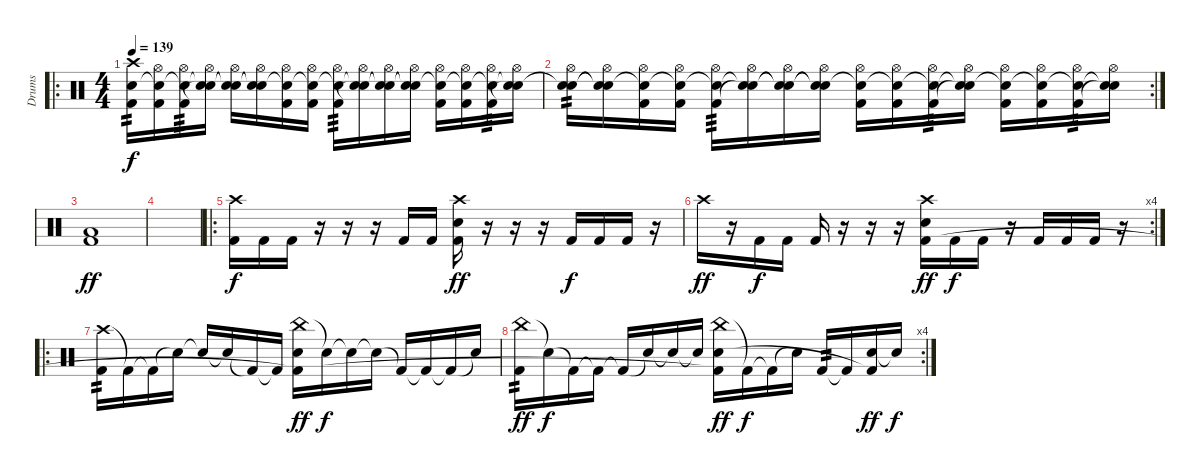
\track ("Drums" "Drums") {instrument percussion}
\staff {score}
\articulation defaults
\ro
\ts (4 4)
\tempo 139
\clef neutral
\ks c
("Crash high (hit)" "Electric Snare (hit)" "Kick (hit) 2").16{tp 2 dy f} ("Hi-Hat (open)" "Electric Snare (hit)"{t} "Kick (hit) 2").16 ("Hi-Hat (open)" "Electric Snare (hit)"{t} "Kick (hit) 2").16{tp 3} ("Hi-Hat (open)" "Electric Snare (hit)"{t} "Snare (hit)"{t}).16 ("Hi-Hat (open)" "Electric Snare (hit)"{t} "Snare (hit)"{t}).16 ("Hi-Hat (open)" "Electric Snare (hit)"{t} "Snare (hit)"{t}).16 ("Hi-Hat (open)" "Electric Snare (hit)"{t} "Kick (hit) 2").16 ("Hi-Hat (open)" "Electric Snare (hit)"{t} "Kick (hit) 2").16 ("Hi-Hat (open)" "Electric Snare (hit)"{t} "Kick (hit) 2").16{tp 3} ("Hi-Hat (open)" "Electric Snare (hit)"{t} "Snare (hit)"{t}).16 ("Hi-Hat (open)" "Electric Snare (hit)"{t} "Snare (hit)"{t}).16 ("Hi-Hat (open)" "Electric Snare (hit)"{t} "Snare (hit)"{t}).16 ("Hi-Hat (open)" "Electric Snare (hit)"{t} "Kick (hit) 2").16 ("Hi-Hat (open)" "Electric Snare (hit)"{t} "Kick (hit) 2").16 ("Hi-Hat (open)" "Electric Snare (hit)"{t} "Kick (hit) 2").16{tp 3} ("Hi-Hat (open)" "Electric Snare (hit)"{t} "Snare (hit)"{t}).16 |
\rc 2
("Hi-Hat (open)" "Electric Snare (hit)" "Snare (hit)"{t}).16{tp 2} ("Hi-Hat (open)" "Electric Snare (hit)"{t} "Snare (hit)"{t}).16 ("Hi-Hat (open)" "Electric Snare (hit)"{t} "Kick (hit) 2").16 ("Hi-Hat (open)" "Electric Snare (hit)"{t} "Kick (hit) 2").16 ("Hi-Hat (open)" "Electric Snare (hit)"{t} "Kick (hit) 2").16{tp 3} ("Hi-Hat (open)" "Electric Snare (hit)"{t} "Snare (hit)"{t}).16 ("Hi-Hat (open)" "Electric Snare (hit)"{t} "Snare (hit)"{t}).16 ("Hi-Hat (open)" "Electric Snare (hit)"{t} "Snare (hit)"{t}).16 ("Hi-Hat (open)" "Electric Snare (hit)"{t} "Kick (hit) 2").16 ("Hi-Hat (open)" "Electric Snare (hit)"{t} "Kick (hit) 2").16 ("Hi-Hat (open)" "Electric Snare (hit)"{t} "Kick (hit) 2").16{tp 3} ("Hi-Hat (open)" "Electric Snare (hit)"{t} "Snare (hit)"{t}).16 ("Hi-Hat (open)" "Electric Snare (hit)"{t} "Kick (hit) 2").16 ("Hi-Hat (open)" "Electric Snare (hit)"{t} "Kick (hit) 2").16 ("Hi-Hat (open)" "Electric Snare (hit)"{t} "Kick (hit) 2").16{tp 3} ("Hi-Hat (open)" "Electric Snare (hit)"{t} "Snare (hit)"{t}).16 |
("Low Floor Tom (hit)" "Kick (hit) 2").1{dy ff} |
|
\ro
("Crash high (hit)" "Kick (hit) 2").16{dy f} "Kick (hit) 2".16 "Kick (hit) 2".16 r.16 r.16 r.16 "Kick (hit) 2".16 "Kick (hit) 2".16 ("Crash high (hit)" "Electric Snare (hit)" "Kick (hit) 2").16{dy ff} r.16 r.16 r.16 "Kick (hit) 2".16{dy f} "Kick (hit) 2".16 "Kick (hit) 2".16 r.16 |
\rc 4 "Crash high (hit)".16{dy ff}
r.16 "Kick (hit) 2".16{dy f} "Kick (hit) 2".16 "Kick (hit) 2".16 r.16 r.16 r.16 ("Crash high (hit)" "Electric Snare (hit)" "Kick (hit) 2").16{dy ff} "Kick (hit) 2".16{dy f} "Kick (hit) 2".16 r.16 "Kick (hit) 2".16 "Kick (hit) 2".16 "Kick (hit) 2".16 r.16 |
\ro
("Crash high (hit)" "Kick (hit) 2").16{tp 2} "Kick (hit) 2"{t}.16 "Kick (hit) 2"{t}.16 "Snare (hit)"{t}.16 "Snare (hit)"{t}.16 "Snare (hit)"{t}.16 "Kick (hit) 2"{t}.16 "Kick (hit) 2"{t}.16 ("China (hit)" "Electric Snare (hit)" "Kick (hit) 2"{t}).16{dy ff} "Snare (hit)"{t}.16{dy f} "Snare (hit)"{t}.16 "Snare (hit)"{t}.16 "Kick (hit) 2"{t}.16 "Kick (hit) 2"{t}.16 "Kick (hit) 2"{t}.16 "Snare (hit)"{t}.16 |
\rc 4
("China (hit)" "Kick (hit) 2").16{tp 2 dy ff} "Snare (hit)"{t}.16{dy f} "Kick (hit) 2"{t}.16 "Kick (hit) 2"{t}.16 "Kick (hit) 2"{t}.16 "Snare (hit)"{t}.16 "Snare (hit)"{t}.16 "Snare (hit)"{t}.16 ("China (hit)" "Electric Snare (hit)" "Kick (hit) 2"{t}).16{dy ff} "Kick (hit) 2"{t}.16{dy f} "Kick (hit) 2"{t}.16 "Snare (hit)"{t}.16 "Kick (hit) 2".16{tp 2} "Kick (hit) 2"{t}.16 ("Electric Snare (hit)" "Kick (hit) 2"{t}).16{dy ff} "Snare (hit)"{t}.16{dy f}
